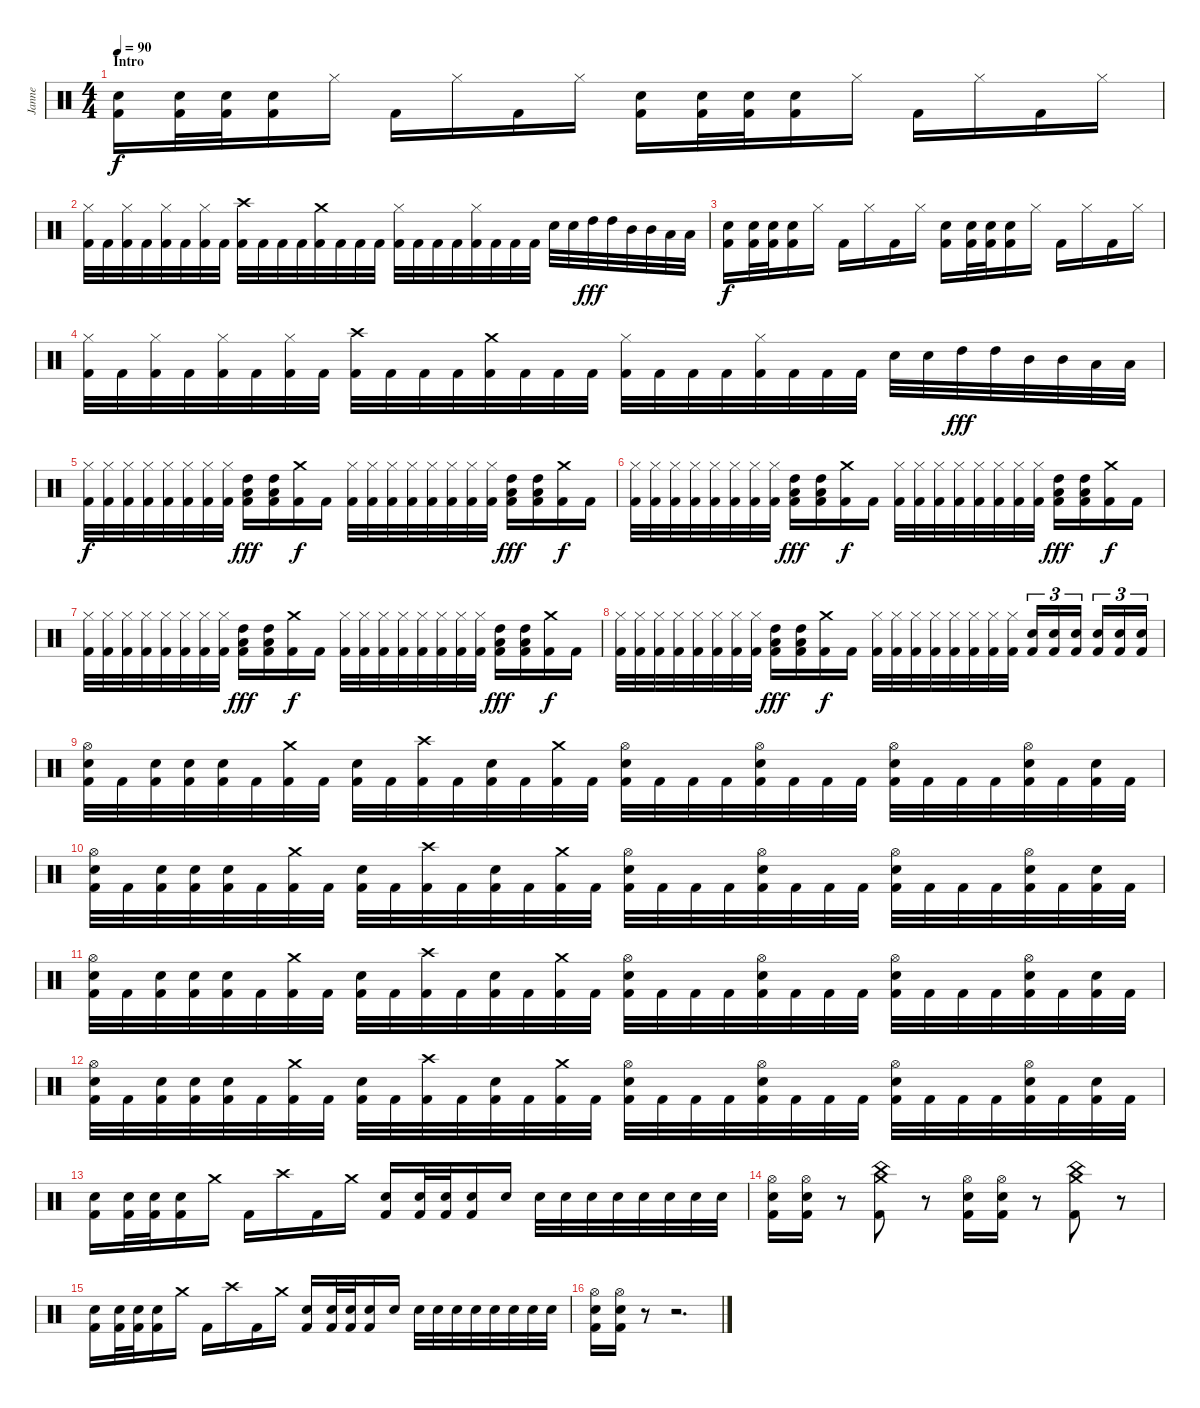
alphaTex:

\track ("Janne" "Janne") {instrument percussion}
\staff {score}
\articulation defaults
\ts (4 4)
\section ("" "Intro")
\tempo 90
\clef neutral
\ks c
("Electric Snare (hit)" "Kick (hit) 2").16{dy f} ("Electric Snare (hit)" "Kick (hit) 2").32 ("Electric Snare (hit)" "Kick (hit) 2").32 ("Electric Snare (hit)" "Kick (hit) 2").16 "Hi-Hat (closed)".16 "Kick (hit) 2".16 "Hi-Hat (closed)".16 "Kick (hit) 2".16 "Hi-Hat (closed)".16 ("Electric Snare (hit)" "Kick (hit) 2").16 ("Electric Snare (hit)" "Kick (hit) 2").32 ("Electric Snare (hit)" "Kick (hit) 2").32 ("Electric Snare (hit)" "Kick (hit) 2").16 "Hi-Hat (closed)".16 "Kick (hit) 2".16 "Hi-Hat (closed)".16 "Kick (hit) 2".16 "Hi-Hat (closed)".16 |
("Hi-Hat (closed)" "Kick (hit) 2").32 "Kick (hit) 2".32 ("Hi-Hat (closed)" "Kick (hit) 2").32 "Kick (hit) 2".32 ("Hi-Hat (closed)" "Kick (hit) 2").32 "Kick (hit) 2".32 ("Hi-Hat (closed)" "Kick (hit) 2").32 "Kick (hit) 2".32 ("Crash high (hit)" "Kick (hit) 2").32 "Kick (hit) 2".32 "Kick (hit) 2".32 "Kick (hit) 2".32 ("Crash medium (hit)" "Kick (hit) 2").32 "Kick (hit) 2".32 "Kick (hit) 2".32 "Kick (hit) 2".32 ("Hi-Hat (closed)" "Kick (hit) 2").32 "Kick (hit) 2".32 "Kick (hit) 2".32 "Kick (hit) 2".32 ("Hi-Hat (closed)" "Kick (hit) 2").32 "Kick (hit) 2".32 "Kick (hit) 2".32 "Kick (hit) 2".32 "Electric Snare (hit)".32 "Electric Snare (hit)".32 "High Tom (hit)".32{dy fff} "High Tom (hit)".32 "Mid Tom (hit)".32 "Mid Tom (hit)".32 "Low Tom (hit)".32 "Low Tom (hit)".32 |
("Electric Snare (hit)" "Kick (hit) 2").16{dy f} ("Electric Snare (hit)" "Kick (hit) 2").32 ("Electric Snare (hit)" "Kick (hit) 2").32 ("Electric Snare (hit)" "Kick (hit) 2").16 "Hi-Hat (closed)".16 "Kick (hit) 2".16 "Hi-Hat (closed)".16 "Kick (hit) 2".16 "Hi-Hat (closed)".16 ("Electric Snare (hit)" "Kick (hit) 2").16 ("Electric Snare (hit)" "Kick (hit) 2").32 ("Electric Snare (hit)" "Kick (hit) 2").32 ("Electric Snare (hit)" "Kick (hit) 2").16 "Hi-Hat (closed)".16 "Kick (hit) 2".16 "Hi-Hat (closed)".16 "Kick (hit) 2".16 "Hi-Hat (closed)".16 |
("Hi-Hat (closed)" "Kick (hit) 2").32 "Kick (hit) 2".32 ("Hi-Hat (closed)" "Kick (hit) 2").32 "Kick (hit) 2".32 ("Hi-Hat (closed)" "Kick (hit) 2").32 "Kick (hit) 2".32 ("Hi-Hat (closed)" "Kick (hit) 2").32 "Kick (hit) 2".32 ("Crash high (hit)" "Kick (hit) 2").32 "Kick (hit) 2".32 "Kick (hit) 2".32 "Kick (hit) 2".32 ("Crash medium (hit)" "Kick (hit) 2").32 "Kick (hit) 2".32 "Kick (hit) 2".32 "Kick (hit) 2".32 ("Hi-Hat (closed)" "Kick (hit) 2").32 "Kick (hit) 2".32 "Kick (hit) 2".32 "Kick (hit) 2".32 ("Hi-Hat (closed)" "Kick (hit) 2").32 "Kick (hit) 2".32 "Kick (hit) 2".32 "Kick (hit) 2".32 "Electric Snare (hit)".32 "Electric Snare (hit)".32 "High Tom (hit)".32{dy fff} "High Tom (hit)".32 "Mid Tom (hit)".32 "Mid Tom (hit)".32 "Low Tom (hit)".32 "Low Tom (hit)".32 |
("Hi-Hat (closed)" "Kick (hit) 2").32{dy f} ("Hi-Hat (closed)" "Kick (hit) 2").32 ("Hi-Hat (closed)" "Kick (hit) 2").32 ("Hi-Hat (closed)" "Kick (hit) 2").32 ("Hi-Hat (closed)" "Kick (hit) 2").32 ("Hi-Hat (closed)" "Kick (hit) 2").32 ("Hi-Hat (closed)" "Kick (hit) 2").32 ("Hi-Hat (closed)" "Kick (hit) 2").32 ("High Tom (hit)" "Low Tom (hit)" "Kick (hit) 2").16{dy fff} ("High Tom (hit)" "Low Tom (hit)" "Kick (hit) 2").16 ("Crash medium (hit)" "Kick (hit) 2").16{dy f} "Kick (hit) 2".16 ("Hi-Hat (closed)" "Kick (hit) 2").32 ("Hi-Hat (closed)" "Kick (hit) 2").32 ("Hi-Hat (closed)" "Kick (hit) 2").32 ("Hi-Hat (closed)" "Kick (hit) 2").32 ("Hi-Hat (closed)" "Kick (hit) 2").32 ("Hi-Hat (closed)" "Kick (hit) 2").32 ("Hi-Hat (closed)" "Kick (hit) 2").32 ("Hi-Hat (closed)" "Kick (hit) 2").32 ("High Tom (hit)" "Low Tom (hit)" "Kick (hit) 2").16{dy fff} ("High Tom (hit)" "Low Tom (hit)" "Kick (hit) 2").16 ("Crash medium (hit)" "Kick (hit) 2").16{dy f} "Kick (hit) 2".16 |
("Hi-Hat (closed)" "Kick (hit) 2").32 ("Hi-Hat (closed)" "Kick (hit) 2").32 ("Hi-Hat (closed)" "Kick (hit) 2").32 ("Hi-Hat (closed)" "Kick (hit) 2").32 ("Hi-Hat (closed)" "Kick (hit) 2").32 ("Hi-Hat (closed)" "Kick (hit) 2").32 ("Hi-Hat (closed)" "Kick (hit) 2").32 ("Hi-Hat (closed)" "Kick (hit) 2").32 ("High Tom (hit)" "Low Tom (hit)" "Kick (hit) 2").16{dy fff} ("High Tom (hit)" "Low Tom (hit)" "Kick (hit) 2").16 ("Crash medium (hit)" "Kick (hit) 2").16{dy f} "Kick (hit) 2".16 ("Hi-Hat (closed)" "Kick (hit) 2").32 ("Hi-Hat (closed)" "Kick (hit) 2").32 ("Hi-Hat (closed)" "Kick (hit) 2").32 ("Hi-Hat (closed)" "Kick (hit) 2").32 ("Hi-Hat (closed)" "Kick (hit) 2").32 ("Hi-Hat (closed)" "Kick (hit) 2").32 ("Hi-Hat (closed)" "Kick (hit) 2").32 ("Hi-Hat (closed)" "Kick (hit) 2").32 ("High Tom (hit)" "Low Tom (hit)" "Kick (hit) 2").16{dy fff} ("High Tom (hit)" "Low Tom (hit)" "Kick (hit) 2").16 ("Crash medium (hit)" "Kick (hit) 2").16{dy f} "Kick (hit) 2".16 |
("Hi-Hat (closed)" "Kick (hit) 2").32 ("Hi-Hat (closed)" "Kick (hit) 2").32 ("Hi-Hat (closed)" "Kick (hit) 2").32 ("Hi-Hat (closed)" "Kick (hit) 2").32 ("Hi-Hat (closed)" "Kick (hit) 2").32 ("Hi-Hat (closed)" "Kick (hit) 2").32 ("Hi-Hat (closed)" "Kick (hit) 2").32 ("Hi-Hat (closed)" "Kick (hit) 2").32 ("High Tom (hit)" "Low Tom (hit)" "Kick (hit) 2").16{dy fff} ("High Tom (hit)" "Low Tom (hit)" "Kick (hit) 2").16 ("Crash medium (hit)" "Kick (hit) 2").16{dy f} "Kick (hit) 2".16 ("Hi-Hat (closed)" "Kick (hit) 2").32 ("Hi-Hat (closed)" "Kick (hit) 2").32 ("Hi-Hat (closed)" "Kick (hit) 2").32 ("Hi-Hat (closed)" "Kick (hit) 2").32 ("Hi-Hat (closed)" "Kick (hit) 2").32 ("Hi-Hat (closed)" "Kick (hit) 2").32 ("Hi-Hat (closed)" "Kick (hit) 2").32 ("Hi-Hat (closed)" "Kick (hit) 2").32 ("High Tom (hit)" "Low Tom (hit)" "Kick (hit) 2").16{dy fff} ("High Tom (hit)" "Low Tom (hit)" "Kick (hit) 2").16 ("Crash medium (hit)" "Kick (hit) 2").16{dy f} "Kick (hit) 2".16 |
("Hi-Hat (closed)" "Kick (hit) 2").32 ("Hi-Hat (closed)" "Kick (hit) 2").32 ("Hi-Hat (closed)" "Kick (hit) 2").32 ("Hi-Hat (closed)" "Kick (hit) 2").32 ("Hi-Hat (closed)" "Kick (hit) 2").32 ("Hi-Hat (closed)" "Kick (hit) 2").32 ("Hi-Hat (closed)" "Kick (hit) 2").32 ("Hi-Hat (closed)" "Kick (hit) 2").32 ("High Tom (hit)" "Low Tom (hit)" "Kick (hit) 2").16{dy fff} ("High Tom (hit)" "Low Tom (hit)" "Kick (hit) 2").16 ("Crash medium (hit)" "Kick (hit) 2").16{dy f} "Kick (hit) 2".16 ("Hi-Hat (closed)" "Kick (hit) 2").32 ("Hi-Hat (closed)" "Kick (hit) 2").32 ("Hi-Hat (closed)" "Kick (hit) 2").32 ("Hi-Hat (closed)" "Kick (hit) 2").32 ("Hi-Hat (closed)" "Kick (hit) 2").32 ("Hi-Hat (closed)" "Kick (hit) 2").32 ("Hi-Hat (closed)" "Kick (hit) 2").32 ("Hi-Hat (closed)" "Kick (hit) 2").32 ("Electric Snare (hit)" "Kick (hit) 2").16{tu (3 2)} ("Electric Snare (hit)" "Kick (hit) 2").16{tu (3 2)} ("Electric Snare (hit)" "Kick (hit) 2").16{tu (3 2)} ("Electric Snare (hit)" "Kick (hit) 2").16{tu (3 2)} ("Electric Snare (hit)" "Kick (hit) 2").16{tu (3 2)} ("Electric Snare (hit)" "Kick (hit) 2").16{tu (3 2)} |
("Hi-Hat (open)" "Electric Snare (hit)" "Kick (hit) 2").32 "Kick (hit) 2".32 ("Electric Snare (hit)" "Kick (hit) 2").32 ("Electric Snare (hit)" "Kick (hit) 2").32 ("Electric Snare (hit)" "Kick (hit) 2").32 "Kick (hit) 2".32 ("Crash medium (hit)" "Kick (hit) 2").32 "Kick (hit) 2".32 ("Electric Snare (hit)" "Kick (hit) 2").32 "Kick (hit) 2".32 ("Crash high (hit)" "Kick (hit) 2").32 "Kick (hit) 2".32 ("Electric Snare (hit)" "Kick (hit) 2").32 "Kick (hit) 2".32 ("Crash medium (hit)" "Kick (hit) 2").32 "Kick (hit) 2".32 ("Hi-Hat (open)" "Electric Snare (hit)" "Kick (hit) 2").32 "Kick (hit) 2".32 "Kick (hit) 2".32 "Kick (hit) 2".32 ("Hi-Hat (open)" "Electric Snare (hit)" "Kick (hit) 2").32 "Kick (hit) 2".32 "Kick (hit) 2".32 "Kick (hit) 2".32 ("Hi-Hat (open)" "Electric Snare (hit)" "Kick (hit) 2").32 "Kick (hit) 2".32 "Kick (hit) 2".32 "Kick (hit) 2".32 ("Hi-Hat (open)" "Electric Snare (hit)" "Kick (hit) 2").32 "Kick (hit) 2".32 ("Electric Snare (hit)" "Kick (hit) 2").32 "Kick (hit) 2".32 |
("Hi-Hat (open)" "Electric Snare (hit)" "Kick (hit) 2").32 "Kick (hit) 2".32 ("Electric Snare (hit)" "Kick (hit) 2").32 ("Electric Snare (hit)" "Kick (hit) 2").32 ("Electric Snare (hit)" "Kick (hit) 2").32 "Kick (hit) 2".32 ("Crash medium (hit)" "Kick (hit) 2").32 "Kick (hit) 2".32 ("Electric Snare (hit)" "Kick (hit) 2").32 "Kick (hit) 2".32 ("Crash high (hit)" "Kick (hit) 2").32 "Kick (hit) 2".32 ("Electric Snare (hit)" "Kick (hit) 2").32 "Kick (hit) 2".32 ("Crash medium (hit)" "Kick (hit) 2").32 "Kick (hit) 2".32 ("Hi-Hat (open)" "Electric Snare (hit)" "Kick (hit) 2").32 "Kick (hit) 2".32 "Kick (hit) 2".32 "Kick (hit) 2".32 ("Hi-Hat (open)" "Electric Snare (hit)" "Kick (hit) 2").32 "Kick (hit) 2".32 "Kick (hit) 2".32 "Kick (hit) 2".32 ("Hi-Hat (open)" "Electric Snare (hit)" "Kick (hit) 2").32 "Kick (hit) 2".32 "Kick (hit) 2".32 "Kick (hit) 2".32 ("Hi-Hat (open)" "Electric Snare (hit)" "Kick (hit) 2").32 "Kick (hit) 2".32 ("Electric Snare (hit)" "Kick (hit) 2").32 "Kick (hit) 2".32 |
("Hi-Hat (open)" "Electric Snare (hit)" "Kick (hit) 2").32 "Kick (hit) 2".32 ("Electric Snare (hit)" "Kick (hit) 2").32 ("Electric Snare (hit)" "Kick (hit) 2").32 ("Electric Snare (hit)" "Kick (hit) 2").32 "Kick (hit) 2".32 ("Crash medium (hit)" "Kick (hit) 2").32 "Kick (hit) 2".32 ("Electric Snare (hit)" "Kick (hit) 2").32 "Kick (hit) 2".32 ("Crash high (hit)" "Kick (hit) 2").32 "Kick (hit) 2".32 ("Electric Snare (hit)" "Kick (hit) 2").32 "Kick (hit) 2".32 ("Crash medium (hit)" "Kick (hit) 2").32 "Kick (hit) 2".32 ("Hi-Hat (open)" "Electric Snare (hit)" "Kick (hit) 2").32 "Kick (hit) 2".32 "Kick (hit) 2".32 "Kick (hit) 2".32 ("Hi-Hat (open)" "Electric Snare (hit)" "Kick (hit) 2").32 "Kick (hit) 2".32 "Kick (hit) 2".32 "Kick (hit) 2".32 ("Hi-Hat (open)" "Electric Snare (hit)" "Kick (hit) 2").32 "Kick (hit) 2".32 "Kick (hit) 2".32 "Kick (hit) 2".32 ("Hi-Hat (open)" "Electric Snare (hit)" "Kick (hit) 2").32 "Kick (hit) 2".32 ("Electric Snare (hit)" "Kick (hit) 2").32 "Kick (hit) 2".32 |
("Hi-Hat (open)" "Electric Snare (hit)" "Kick (hit) 2").32 "Kick (hit) 2".32 ("Electric Snare (hit)" "Kick (hit) 2").32 ("Electric Snare (hit)" "Kick (hit) 2").32 ("Electric Snare (hit)" "Kick (hit) 2").32 "Kick (hit) 2".32 ("Crash medium (hit)" "Kick (hit) 2").32 "Kick (hit) 2".32 ("Electric Snare (hit)" "Kick (hit) 2").32 "Kick (hit) 2".32 ("Crash high (hit)" "Kick (hit) 2").32 "Kick (hit) 2".32 ("Electric Snare (hit)" "Kick (hit) 2").32 "Kick (hit) 2".32 ("Crash medium (hit)" "Kick (hit) 2").32 "Kick (hit) 2".32 ("Hi-Hat (open)" "Electric Snare (hit)" "Kick (hit) 2").32 "Kick (hit) 2".32 "Kick (hit) 2".32 "Kick (hit) 2".32 ("Hi-Hat (open)" "Electric Snare (hit)" "Kick (hit) 2").32 "Kick (hit) 2".32 "Kick (hit) 2".32 "Kick (hit) 2".32 ("Hi-Hat (open)" "Electric Snare (hit)" "Kick (hit) 2").32 "Kick (hit) 2".32 "Kick (hit) 2".32 "Kick (hit) 2".32 ("Hi-Hat (open)" "Electric Snare (hit)" "Kick (hit) 2").32 "Kick (hit) 2".32 ("Electric Snare (hit)" "Kick (hit) 2").32 "Kick (hit) 2".32 |
("Electric Snare (hit)" "Kick (hit) 2").16 ("Electric Snare (hit)" "Kick (hit) 2").32 ("Electric Snare (hit)" "Kick (hit) 2").32 ("Electric Snare (hit)" "Kick (hit) 2").16 "Crash medium (hit)".16 "Kick (hit) 2".16 "Crash high (hit)".16 "Kick (hit) 2".16 "Crash medium (hit)".16 ("Electric Snare (hit)" "Kick (hit) 2").16 ("Electric Snare (hit)" "Kick (hit) 2").32 ("Electric Snare (hit)" "Kick (hit) 2").32 ("Electric Snare (hit)" "Kick (hit) 2").16 "Electric Snare (hit)".16 "Electric Snare (hit)".32 "Electric Snare (hit)".32 "Electric Snare (hit)".32 "Electric Snare (hit)".32 "Electric Snare (hit)".32 "Electric Snare (hit)".32 "Electric Snare (hit)".32 "Electric Snare (hit)".32 |
("Hi-Hat (open)" "Electric Snare (hit)" "Kick (hit) 2").16 ("Hi-Hat (open)" "Electric Snare (hit)" "Kick (hit) 2").16 r.8 ("Crash medium (hit)" "China (hit)" "Kick (hit) 2").8 r.8 ("Hi-Hat (open)" "Electric Snare (hit)" "Kick (hit) 2").16 ("Hi-Hat (open)" "Electric Snare (hit)" "Kick (hit) 2").16 r.8 ("Crash medium (hit)" "China (hit)" "Kick (hit) 2").8 r.8 |
("Electric Snare (hit)" "Kick (hit) 2").16 ("Electric Snare (hit)" "Kick (hit) 2").32 ("Electric Snare (hit)" "Kick (hit) 2").32 ("Electric Snare (hit)" "Kick (hit) 2").16 "Crash medium (hit)".16 "Kick (hit) 2".16 "Crash high (hit)".16 "Kick (hit) 2".16 "Crash medium (hit)".16 ("Electric Snare (hit)" "Kick (hit) 2").16 ("Electric Snare (hit)" "Kick (hit) 2").32 ("Electric Snare (hit)" "Kick (hit) 2").32 ("Electric Snare (hit)" "Kick (hit) 2").16 "Electric Snare (hit)".16 "Electric Snare (hit)".32 "Electric Snare (hit)".32 "Electric Snare (hit)".32 "Electric Snare (hit)".32 "Electric Snare (hit)".32 "Electric Snare (hit)".32 "Electric Snare (hit)".32 "Electric Snare (hit)".32 |
("Hi-Hat (open)" "Electric Snare (hit)" "Kick (hit) 2").16 ("Hi-Hat (open)" "Electric Snare (hit)" "Kick (hit) 2").16 r.8 r.2{d}
